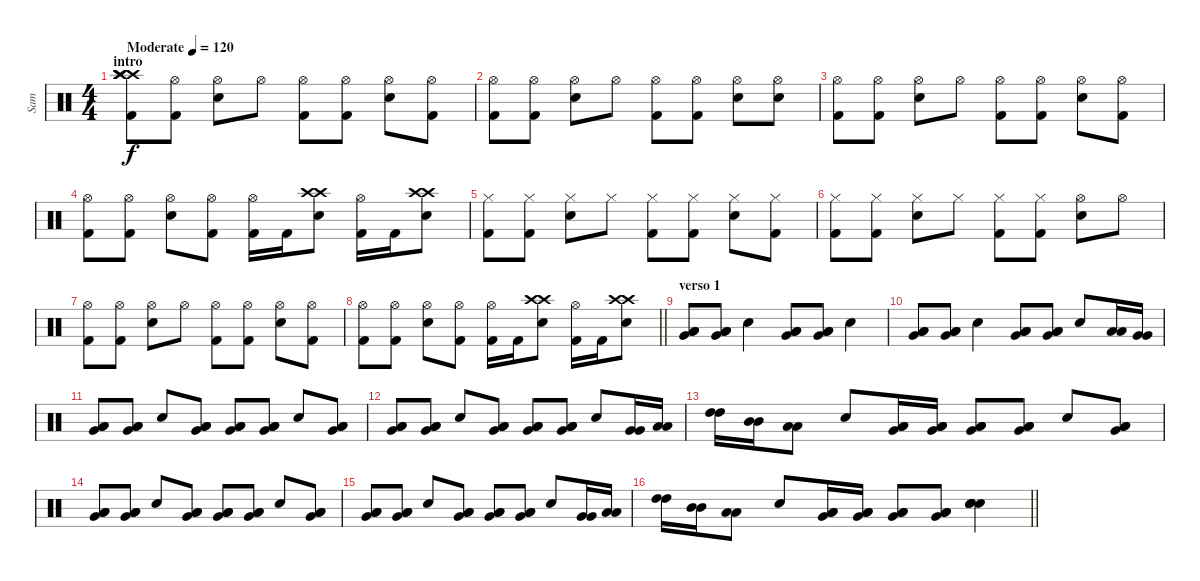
\track ("Sam" "Sam") {instrument percussion}
\staff {score}
\articulation defaults
\ts (4 4)
\section ("" "intro")
\tempo (120 "Moderate")
\clef neutral
\ks c
("Crash high (hit)" "Crash high (hit)" "Crash high (hit)" "Crash high (hit)" "Kick (hit) 2").8{dy f} ("Hi-Hat (open)" "Kick (hit) 2").8 ("Hi-Hat (open)" "Electric Snare (hit)").8 "Hi-Hat (open)".8 ("Hi-Hat (open)" "Kick (hit) 2").8 ("Hi-Hat (open)" "Kick (hit) 2").8 ("Hi-Hat (open)" "Electric Snare (hit)").8 ("Hi-Hat (open)" "Kick (hit) 2").8 |
("Hi-Hat (open)" "Kick (hit) 2").8 ("Hi-Hat (open)" "Kick (hit) 2").8 ("Hi-Hat (open)" "Electric Snare (hit)").8 "Hi-Hat (open)".8 ("Hi-Hat (open)" "Kick (hit) 2").8 ("Hi-Hat (open)" "Kick (hit) 2").8 ("Hi-Hat (open)" "Electric Snare (hit)").8 ("Hi-Hat (open)" "Electric Snare (hit)").8 |
("Hi-Hat (open)" "Kick (hit) 2").8 ("Hi-Hat (open)" "Kick (hit) 2").8 ("Hi-Hat (open)" "Electric Snare (hit)").8 "Hi-Hat (open)".8 ("Hi-Hat (open)" "Kick (hit) 2").8 ("Hi-Hat (open)" "Kick (hit) 2").8 ("Hi-Hat (open)" "Electric Snare (hit)").8 ("Hi-Hat (open)" "Kick (hit) 2").8 |
("Hi-Hat (open)" "Kick (hit) 2").8 ("Hi-Hat (open)" "Kick (hit) 2").8 ("Hi-Hat (open)" "Electric Snare (hit)").8 ("Hi-Hat (open)" "Kick (hit) 2").8 ("Hi-Hat (open)" "Kick (hit) 2").16 "Kick (hit) 2".16 ("Crash high (hit)" "Crash high (hit)" "Electric Snare (hit)").8 ("Hi-Hat (open)" "Kick (hit) 2").16 "Kick (hit) 2".16 ("Crash high (hit)" "Crash high (hit)" "Electric Snare (hit)").8 |
("Hi-Hat (closed)" "Kick (hit) 2").8 ("Hi-Hat (closed)" "Kick (hit) 2").8 ("Hi-Hat (closed)" "Electric Snare (hit)").8 "Hi-Hat (closed)".8 ("Hi-Hat (closed)" "Kick (hit) 2").8 ("Hi-Hat (closed)" "Kick (hit) 2").8 ("Hi-Hat (closed)" "Electric Snare (hit)").8 ("Hi-Hat (closed)" "Kick (hit) 2").8 |
("Hi-Hat (closed)" "Kick (hit) 2").8 ("Hi-Hat (closed)" "Kick (hit) 2").8 ("Hi-Hat (closed)" "Electric Snare (hit)").8 "Hi-Hat (closed)".8 ("Hi-Hat (closed)" "Kick (hit) 2").8 ("Hi-Hat (closed)" "Kick (hit) 2").8 ("Hi-Hat (open)" "Electric Snare (hit)").8 "Hi-Hat (open)".8 |
("Hi-Hat (open)" "Kick (hit) 2").8 ("Hi-Hat (open)" "Kick (hit) 2").8 ("Hi-Hat (open)" "Electric Snare (hit)").8 "Hi-Hat (open)".8 ("Hi-Hat (open)" "Kick (hit) 2").8 ("Hi-Hat (open)" "Kick (hit) 2").8 ("Hi-Hat (open)" "Electric Snare (hit)").8 ("Hi-Hat (open)" "Kick (hit) 2").8 |
\barLineRight lightlight
("Hi-Hat (open)" "Kick (hit) 2").8 ("Hi-Hat (open)" "Kick (hit) 2").8 ("Hi-Hat (open)" "Electric Snare (hit)").8 ("Hi-Hat (open)" "Kick (hit) 2").8 ("Hi-Hat (open)" "Kick (hit) 2").16 "Kick (hit) 2".16 ("Crash high (hit)" "Crash high (hit)" "Electric Snare (hit)").8 ("Hi-Hat (open)" "Kick (hit) 2").16 "Kick (hit) 2".16 ("Crash high (hit)" "Crash high (hit)" "Electric Snare (hit)").8 |
\section ("" "verso 1")
("Very Low Tom (hit)" "Low Tom (hit)" "Low Tom (hit)").8 ("Very Low Tom (hit)" "Low Tom (hit)" "Low Tom (hit)").8 "Electric Snare (hit)".4 ("Very Low Tom (hit)" "Low Tom (hit)" "Low Tom (hit)").8 ("Very Low Tom (hit)" "Low Tom (hit)" "Low Tom (hit)").8 "Electric Snare (hit)".4 |
("Very Low Tom (hit)" "Low Tom (hit)" "Low Tom (hit)").8 ("Very Low Tom (hit)" "Low Tom (hit)" "Low Tom (hit)").8 "Electric Snare (hit)".4 ("Very Low Tom (hit)" "Low Tom (hit)" "Low Tom (hit)").8 ("Very Low Tom (hit)" "Low Tom (hit)" "Low Tom (hit)").8 "Electric Snare (hit)".8 ("Low Tom (hit)" "Low Tom (hit)").16 ("Very Low Tom (hit)" "Very Low Tom (hit)").16 |
("Very Low Tom (hit)" "Low Tom (hit)" "Low Tom (hit)").8 ("Very Low Tom (hit)" "Low Tom (hit)" "Low Tom (hit)").8 "Electric Snare (hit)".8 ("Very Low Tom (hit)" "Low Tom (hit)" "Low Tom (hit)").8 ("Very Low Tom (hit)" "Low Tom (hit)" "Low Tom (hit)").8 ("Very Low Tom (hit)" "Low Tom (hit)" "Low Tom (hit)").8 "Electric Snare (hit)".8 ("Very Low Tom (hit)" "Low Tom (hit)" "Low Tom (hit)").8 |
("Very Low Tom (hit)" "Low Tom (hit)" "Low Tom (hit)").8 ("Very Low Tom (hit)" "Low Tom (hit)" "Low Tom (hit)").8 "Electric Snare (hit)".8 ("Very Low Tom (hit)" "Low Tom (hit)" "Low Tom (hit)").8 ("Very Low Tom (hit)" "Low Tom (hit)" "Low Tom (hit)").8 ("Very Low Tom (hit)" "Low Tom (hit)" "Low Tom (hit)").8 "Electric Snare (hit)".8 ("Very Low Tom (hit)" "Very Low Tom (hit)").16 ("Low Tom (hit)" "Low Tom (hit)").16 |
("High Tom (hit)" "High Tom (hit)").16 ("Mid Tom (hit)" "Mid Tom (hit)").16 ("Low Tom (hit)" "Low Tom (hit)").8 "Electric Snare (hit)".8 ("Very Low Tom (hit)" "Low Tom (hit)" "Low Tom (hit)").16 ("Very Low Tom (hit)" "Low Tom (hit)" "Low Tom (hit)").16 ("Very Low Tom (hit)" "Low Tom (hit)" "Low Tom (hit)").8 ("Very Low Tom (hit)" "Low Tom (hit)" "Low Tom (hit)").8 "Electric Snare (hit)".8 ("Very Low Tom (hit)" "Low Tom (hit)" "Low Tom (hit)").8 |
("Very Low Tom (hit)" "Low Tom (hit)" "Low Tom (hit)").8 ("Very Low Tom (hit)" "Low Tom (hit)" "Low Tom (hit)").8 "Electric Snare (hit)".8 ("Very Low Tom (hit)" "Low Tom (hit)" "Low Tom (hit)").8 ("Very Low Tom (hit)" "Low Tom (hit)" "Low Tom (hit)").8 ("Very Low Tom (hit)" "Low Tom (hit)" "Low Tom (hit)").8 "Electric Snare (hit)".8 ("Very Low Tom (hit)" "Low Tom (hit)" "Low Tom (hit)").8 |
("Very Low Tom (hit)" "Low Tom (hit)" "Low Tom (hit)").8 ("Very Low Tom (hit)" "Low Tom (hit)" "Low Tom (hit)").8 "Electric Snare (hit)".8 ("Very Low Tom (hit)" "Low Tom (hit)" "Low Tom (hit)").8 ("Very Low Tom (hit)" "Low Tom (hit)" "Low Tom (hit)").8 ("Very Low Tom (hit)" "Low Tom (hit)" "Low Tom (hit)").8 "Electric Snare (hit)".8 ("Very Low Tom (hit)" "Very Low Tom (hit)").16 ("Low Tom (hit)" "Low Tom (hit)").16 |
\barLineRight lightlight
("High Tom (hit)" "High Tom (hit)").16 ("Mid Tom (hit)" "Mid Tom (hit)").16 ("Low Tom (hit)" "Low Tom (hit)").8 "Electric Snare (hit)".8 ("Very Low Tom (hit)" "Low Tom (hit)" "Low Tom (hit)").16 ("Very Low Tom (hit)" "Low Tom (hit)" "Low Tom (hit)").16 ("Very Low Tom (hit)" "Low Tom (hit)" "Low Tom (hit)").8 ("Very Low Tom (hit)" "Low Tom (hit)" "Low Tom (hit)").8 ("Electric Snare (hit)" "Electric Snare (hit)" "Electric Snare (hit)" "Electric Snare (hit)").4
